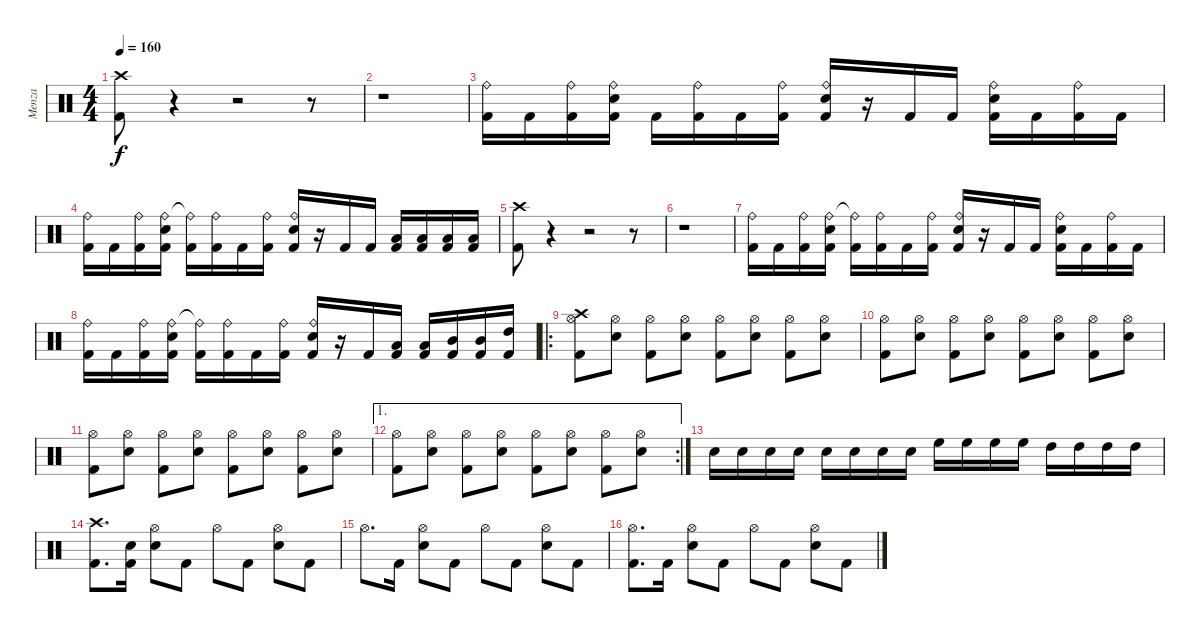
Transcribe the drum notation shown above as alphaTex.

\track ("Menza" "Menza") {instrument percussion}
\staff {score}
\articulation defaults
\ts (4 4)
\tempo 160
\clef neutral
\ks c
("Crash high (hit)" "Kick (hit) 2").8{dy f} r.4 r.2 r.8 |
r.1 |
("Ride (bell)" "Kick (hit) 2").16 "Kick (hit) 2".16 ("Ride (bell)" "Kick (hit) 2").16 ("Ride (bell)" "Snare (hit) 2" "Kick (hit) 2").16 "Kick (hit) 2".16 ("Ride (bell)" "Kick (hit) 2").16 "Kick (hit) 2".16 ("Ride (bell)" "Kick (hit) 2").16 ("Ride (bell)" "Snare (hit) 2" "Kick (hit) 2").16 r.16 "Kick (hit) 2".16 "Kick (hit) 2".16 ("Ride (bell)" "Snare (hit) 2" "Kick (hit) 2").16 "Kick (hit) 2".16 ("Ride (bell)" "Kick (hit) 2").16 "Kick (hit) 2".16 |
("Ride (bell)" "Kick (hit) 2").16 "Kick (hit) 2".16 ("Ride (bell)" "Kick (hit) 2").16 ("Ride (bell)" "Snare (hit) 2" "Kick (hit) 2").16 ("Ride (bell)"{t} "Kick (hit) 2").16 ("Ride (bell)" "Kick (hit) 2").16 "Kick (hit) 2".16 ("Ride (bell)" "Kick (hit) 2").16 ("Ride (bell)" "Snare (hit) 2" "Kick (hit) 2").16 r.16 "Kick (hit) 2".16 "Kick (hit) 2".16 ("Low Tom (hit)" "Kick (hit) 2").16 ("Low Tom (hit)" "Kick (hit) 2").16 ("Low Tom (hit)" "Kick (hit) 2").16 ("Low Tom (hit)" "Kick (hit) 2").16 |
("Crash high (hit)" "Kick (hit) 2").8 r.4 r.2 r.8 |
r.1 |
("Ride (bell)" "Kick (hit) 2").16 "Kick (hit) 2".16 ("Ride (bell)" "Kick (hit) 2").16 ("Ride (bell)" "Snare (hit) 2" "Kick (hit) 2").16 ("Ride (bell)"{t} "Kick (hit) 2").16 ("Ride (bell)" "Kick (hit) 2").16 "Kick (hit) 2".16 ("Ride (bell)" "Kick (hit) 2").16 ("Ride (bell)" "Snare (hit) 2" "Kick (hit) 2").16 r.16 "Kick (hit) 2".16 "Kick (hit) 2".16 ("Ride (bell)" "Snare (hit) 2" "Kick (hit) 2").16 "Kick (hit) 2".16 ("Ride (bell)" "Kick (hit) 2").16 "Kick (hit) 2".16 |
("Ride (bell)" "Kick (hit) 2").16 "Kick (hit) 2".16 ("Ride (bell)" "Kick (hit) 2").16 ("Ride (bell)" "Snare (hit) 2" "Kick (hit) 2").16 ("Ride (bell)"{t} "Kick (hit) 2").16 ("Ride (bell)" "Kick (hit) 2").16 "Kick (hit) 2".16 ("Ride (bell)" "Kick (hit) 2").16 ("Ride (bell)" "Snare (hit) 2" "Kick (hit) 2").16 r.16 "Kick (hit) 2".16 ("Low Tom (hit)" "Kick (hit) 2").16 ("Low Tom (hit)" "Kick (hit) 2").16 ("Mid Tom (hit)" "Kick (hit) 2").16 ("Mid Tom (hit)" "Kick (hit) 2").16 ("High Tom (hit)" "Kick (hit) 2").16 |
\ro
("Crash high (hit)" "Hi-Hat (open)" "Kick (hit) 2").8 ("Hi-Hat (open)" "Snare (hit) 2").8 ("Hi-Hat (open)" "Kick (hit) 2").8 ("Hi-Hat (open)" "Snare (hit) 2").8 ("Hi-Hat (open)" "Kick (hit) 2").8 ("Hi-Hat (open)" "Snare (hit) 2").8 ("Hi-Hat (open)" "Kick (hit) 2").8 ("Hi-Hat (open)" "Snare (hit) 2").8 |
("Hi-Hat (open)" "Kick (hit) 2").8 ("Hi-Hat (open)" "Snare (hit) 2").8 ("Hi-Hat (open)" "Kick (hit) 2").8 ("Hi-Hat (open)" "Snare (hit) 2").8 ("Hi-Hat (open)" "Kick (hit) 2").8 ("Hi-Hat (open)" "Snare (hit) 2").8 ("Hi-Hat (open)" "Kick (hit) 2").8 ("Hi-Hat (open)" "Snare (hit) 2").8 |
("Hi-Hat (open)" "Kick (hit) 2").8 ("Hi-Hat (open)" "Snare (hit) 2").8 ("Hi-Hat (open)" "Kick (hit) 2").8 ("Hi-Hat (open)" "Snare (hit) 2").8 ("Hi-Hat (open)" "Kick (hit) 2").8 ("Hi-Hat (open)" "Snare (hit) 2").8 ("Hi-Hat (open)" "Kick (hit) 2").8 ("Hi-Hat (open)" "Snare (hit) 2").8 |
\ae 1
\rc 2
("Hi-Hat (open)" "Kick (hit) 2").8 ("Hi-Hat (open)" "Snare (hit) 2").8 ("Hi-Hat (open)" "Kick (hit) 2").8 ("Hi-Hat (open)" "Snare (hit) 2").8 ("Hi-Hat (open)" "Kick (hit) 2").8 ("Hi-Hat (open)" "Snare (hit) 2").8 ("Hi-Hat (open)" "Kick (hit) 2").8 ("Hi-Hat (open)" "Snare (hit) 2").8 |
"Snare (hit) 2".16 "Snare (hit) 2".16 "Snare (hit) 2".16 "Snare (hit) 2".16 "Snare (hit) 2".16 "Snare (hit) 2".16 "Snare (hit) 2".16 "Snare (hit) 2".16 "High Floor Tom (hit)".16 "High Floor Tom (hit)".16 "High Floor Tom (hit)".16 "High Floor Tom (hit)".16 "High Tom (hit)".16 "High Tom (hit)".16 "High Tom (hit)".16 "High Tom (hit)".16 |
("Crash high (hit)" "Kick (hit) 2").8{d} ("Snare (hit) 2" "Kick (hit) 2").16 ("Hi-Hat (open)" "Snare (hit) 2").8 "Kick (hit) 2".8 "Hi-Hat (open)".8 "Kick (hit) 2".8 ("Hi-Hat (open)" "Snare (hit) 2").8 "Kick (hit) 2".8 |
"Hi-Hat (open)".8{d} "Kick (hit) 2".16 ("Hi-Hat (open)" "Snare (hit) 2").8 "Kick (hit) 2".8 "Hi-Hat (open)".8 "Kick (hit) 2".8 ("Hi-Hat (open)" "Snare (hit) 2").8 "Kick (hit) 2".8 |
("Hi-Hat (open)" "Kick (hit) 2").8{d} "Kick (hit) 2".16 ("Hi-Hat (open)" "Snare (hit) 2").8 "Kick (hit) 2".8 "Hi-Hat (open)".8 "Kick (hit) 2".8 ("Hi-Hat (open)" "Snare (hit) 2").8 "Kick (hit) 2".8
